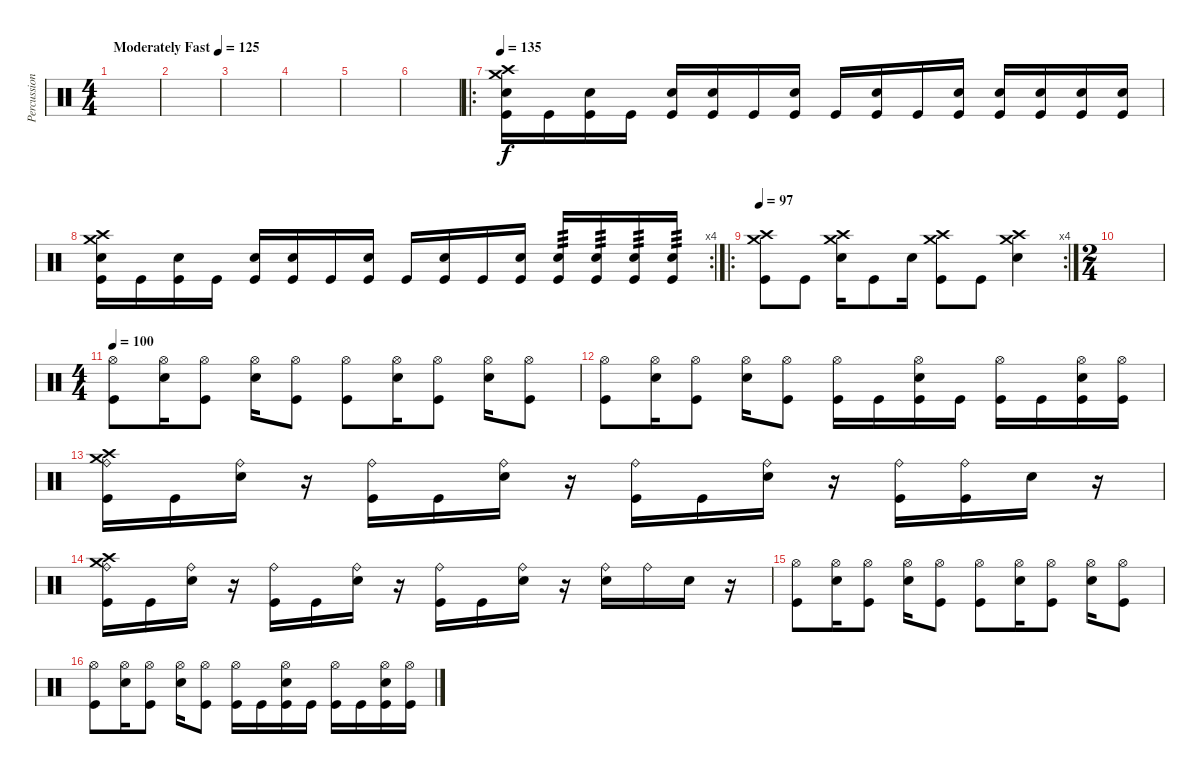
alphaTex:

\track ("Percussion" "Percussion") {instrument percussion}
\staff {score}
\articulation defaults
\ts (4 4)
\tempo (125 "Moderately Fast")
\clef neutral
\ks c
|
|
|
|
|
|
\ro
\tempo 135
("Crash medium (hit)" "Crash high (hit)" "Snare (hit) 2" "Kick (hit)").16 "Kick (hit)".16 ("Snare (hit) 2" "Kick (hit)").16 "Kick (hit)".16 ("Snare (hit) 2" "Kick (hit)").16 ("Snare (hit) 2" "Kick (hit)").16 "Kick (hit)".16 ("Snare (hit) 2" "Kick (hit)").16 "Kick (hit)".16 ("Snare (hit) 2" "Kick (hit)").16 "Kick (hit)".16 ("Snare (hit) 2" "Kick (hit)").16 ("Snare (hit) 2" "Kick (hit)").16 ("Snare (hit) 2" "Kick (hit)").16 ("Snare (hit) 2" "Kick (hit)").16 ("Snare (hit) 2" "Kick (hit)").16 |
\rc 4
("Crash medium (hit)" "Crash high (hit)" "Snare (hit) 2" "Kick (hit)").16 "Kick (hit)".16 ("Snare (hit) 2" "Kick (hit)").16 "Kick (hit)".16 ("Snare (hit) 2" "Kick (hit)").16 ("Snare (hit) 2" "Kick (hit)").16 "Kick (hit)".16 ("Snare (hit) 2" "Kick (hit)").16 "Kick (hit)".16 ("Snare (hit) 2" "Kick (hit)").16 "Kick (hit)".16 ("Snare (hit) 2" "Kick (hit)").16 ("Snare (hit) 2" "Kick (hit)").16{tp 3} ("Snare (hit) 2" "Kick (hit)").16{tp 3} ("Snare (hit) 2" "Kick (hit)").16{tp 3} ("Snare (hit) 2" "Kick (hit)").16{tp 3} |
\ro
\rc 4
\tempo 97
("Crash medium (hit)" "Crash high (hit)" "Kick (hit)").8 "Kick (hit)".8 ("Crash medium (hit)" "Crash high (hit)" "Snare (hit) 2").16 "Kick (hit)".8 "Snare (hit) 2".16 ("Crash medium (hit)" "Crash high (hit)" "Kick (hit)").8 "Kick (hit)".8 ("Crash medium (hit)" "Crash high (hit)" "Snare (hit) 2").4 |
\ts (2 4)
|
\ts (4 4)
\tempo 100
("Hi-Hat (open)" "Kick (hit)").8 ("Hi-Hat (open)" "Snare (hit) 2").16 ("Hi-Hat (open)" "Kick (hit)").8 ("Hi-Hat (open)" "Snare (hit) 2").16 ("Hi-Hat (open)" "Kick (hit)").8 ("Hi-Hat (open)" "Kick (hit)").8 ("Hi-Hat (open)" "Snare (hit) 2").16 ("Hi-Hat (open)" "Kick (hit)").8 ("Hi-Hat (open)" "Snare (hit) 2").16 ("Hi-Hat (open)" "Kick (hit)").8 |
("Hi-Hat (open)" "Kick (hit)").8 ("Hi-Hat (open)" "Snare (hit) 2").16 ("Hi-Hat (open)" "Kick (hit)").8 ("Hi-Hat (open)" "Snare (hit) 2").16 ("Hi-Hat (open)" "Kick (hit)").8 ("Hi-Hat (open)" "Kick (hit)").16 "Kick (hit)".16 ("Hi-Hat (open)" "Snare (hit) 2" "Kick (hit)").16 "Kick (hit)".16 ("Hi-Hat (open)" "Kick (hit)").16 "Kick (hit)".16 ("Hi-Hat (open)" "Snare (hit) 2" "Kick (hit)").16 ("Hi-Hat (open)" "Kick (hit)").16 |
("Crash medium (hit)" "Crash high (hit)" "Ride (bell)" "Kick (hit)").16 "Kick (hit)".16 ("Ride (bell)" "Snare (hit) 2").16 r.16 ("Ride (bell)" "Kick (hit)").16 "Kick (hit)".16 ("Ride (bell)" "Snare (hit) 2").16 r.16 ("Ride (bell)" "Kick (hit)").16 "Kick (hit)".16 ("Ride (bell)" "Snare (hit) 2").16 r.16 ("Ride (bell)" "Kick (hit)").16 ("Ride (bell)" "Kick (hit)").16 "Snare (hit) 2".16 r.16 |
("Crash medium (hit)" "Crash high (hit)" "Ride (bell)" "Kick (hit)").16 "Kick (hit)".16 ("Ride (bell)" "Snare (hit) 2").16 r.16 ("Ride (bell)" "Kick (hit)").16 "Kick (hit)".16 ("Ride (bell)" "Snare (hit) 2").16 r.16 ("Ride (bell)" "Kick (hit)").16 "Kick (hit)".16 ("Ride (bell)" "Snare (hit) 2").16 r.16 ("Ride (bell)" "Snare (hit) 2").16 "Ride (bell)".16 "Snare (hit) 2".16 r.16 |
("Hi-Hat (open)" "Kick (hit)").8 ("Hi-Hat (open)" "Snare (hit) 2").16 ("Hi-Hat (open)" "Kick (hit)").8 ("Hi-Hat (open)" "Snare (hit) 2").16 ("Hi-Hat (open)" "Kick (hit)").8 ("Hi-Hat (open)" "Kick (hit)").8 ("Hi-Hat (open)" "Snare (hit) 2").16 ("Hi-Hat (open)" "Kick (hit)").8 ("Hi-Hat (open)" "Snare (hit) 2").16 ("Hi-Hat (open)" "Kick (hit)").8 |
("Hi-Hat (open)" "Kick (hit)").8 ("Hi-Hat (open)" "Snare (hit) 2").16 ("Hi-Hat (open)" "Kick (hit)").8 ("Hi-Hat (open)" "Snare (hit) 2").16 ("Hi-Hat (open)" "Kick (hit)").8 ("Hi-Hat (open)" "Kick (hit)").16 "Kick (hit)".16 ("Hi-Hat (open)" "Snare (hit) 2" "Kick (hit)").16 "Kick (hit)".16 ("Hi-Hat (open)" "Kick (hit)").16 "Kick (hit)".16 ("Hi-Hat (open)" "Snare (hit) 2" "Kick (hit)").16 ("Hi-Hat (open)" "Kick (hit)").16
